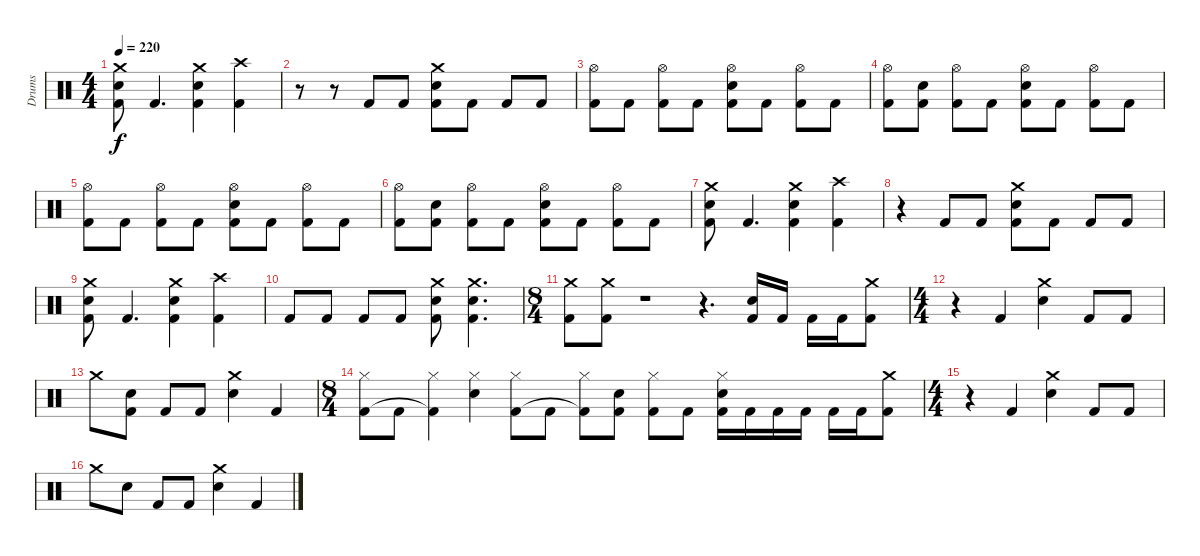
\track ("Drums" "Drums") {instrument percussion}
\staff {score}
\articulation defaults
\ts (4 4)
\tempo 220
\clef neutral
\ks c
("Crash medium (hit)" "Snare (hit) 2" "Kick (hit) 2").8{dy f} "Kick (hit) 2".4{d} ("Crash medium (hit)" "Snare (hit) 2" "Kick (hit) 2").4 ("Crash high (hit)" "Kick (hit) 2").4 |
r.8 r.8 "Kick (hit) 2".8 "Kick (hit) 2".8 ("Crash medium (hit)" "Snare (hit) 2" "Kick (hit) 2").8 "Kick (hit) 2".8 "Kick (hit) 2".8 "Kick (hit) 2".8 |
("Hi-Hat (open)" "Kick (hit) 2").8 "Kick (hit) 2".8 ("Hi-Hat (open)" "Kick (hit) 2").8 "Kick (hit) 2".8 ("Hi-Hat (open)" "Snare (hit) 2" "Kick (hit) 2").8 "Kick (hit) 2".8 ("Hi-Hat (open)" "Kick (hit) 2").8 "Kick (hit) 2".8 |
("Hi-Hat (open)" "Kick (hit) 2").8 ("Snare (hit) 2" "Kick (hit) 2").8 ("Hi-Hat (open)" "Kick (hit) 2").8 "Kick (hit) 2".8 ("Hi-Hat (open)" "Snare (hit) 2" "Kick (hit) 2").8 "Kick (hit) 2".8 ("Hi-Hat (open)" "Kick (hit) 2").8 "Kick (hit) 2".8 |
("Hi-Hat (open)" "Kick (hit) 2").8 "Kick (hit) 2".8 ("Hi-Hat (open)" "Kick (hit) 2").8 "Kick (hit) 2".8 ("Hi-Hat (open)" "Snare (hit) 2" "Kick (hit) 2").8 "Kick (hit) 2".8 ("Hi-Hat (open)" "Kick (hit) 2").8 "Kick (hit) 2".8 |
("Hi-Hat (open)" "Kick (hit) 2").8 ("Snare (hit) 2" "Kick (hit) 2").8 ("Hi-Hat (open)" "Kick (hit) 2").8 "Kick (hit) 2".8 ("Hi-Hat (open)" "Snare (hit) 2" "Kick (hit) 2").8 "Kick (hit) 2".8 ("Hi-Hat (open)" "Kick (hit) 2").8 "Kick (hit) 2".8 |
("Crash medium (hit)" "Snare (hit) 2" "Kick (hit) 2").8 "Kick (hit) 2".4{d} ("Crash medium (hit)" "Snare (hit) 2" "Kick (hit) 2").4 ("Crash high (hit)" "Kick (hit) 2").4 |
r.4 "Kick (hit) 2".8 "Kick (hit) 2".8 ("Crash medium (hit)" "Snare (hit) 2" "Kick (hit) 2").8 "Kick (hit) 2".8 "Kick (hit) 2".8 "Kick (hit) 2".8 |
("Crash medium (hit)" "Snare (hit) 2" "Kick (hit) 2").8 "Kick (hit) 2".4{d} ("Crash medium (hit)" "Snare (hit) 2" "Kick (hit) 2").4 ("Crash high (hit)" "Kick (hit) 2").4 |
"Kick (hit) 2".8 "Kick (hit) 2".8 "Kick (hit) 2".8 "Kick (hit) 2".8 ("Crash medium (hit)" "Snare (hit) 2" "Kick (hit) 2").8 ("Crash medium (hit)" "Snare (hit) 2" "Kick (hit) 2").4{d} |
\ts (8 4)
("Crash medium (hit)" "Kick (hit) 2").8 ("Crash medium (hit)" "Kick (hit) 2").8 r.1 r.4{d} ("Snare (hit) 2" "Kick (hit) 2").16 "Kick (hit) 2".16 "Kick (hit) 2".16 "Kick (hit) 2".16 ("Crash medium (hit)" "Kick (hit) 2").8 |
\ts (4 4)
r.4 "Kick (hit) 2".4 ("Crash medium (hit)" "Snare (hit) 2").4 "Kick (hit) 2".8 "Kick (hit) 2".8 |
"Crash medium (hit)".8 ("Snare (hit) 2" "Kick (hit) 2").8 "Kick (hit) 2".8 "Kick (hit) 2".8 ("Crash medium (hit)" "Snare (hit) 2").4 "Kick (hit) 2".4 |
\ts (8 4)
("Hi-Hat (closed)" "Kick (hit) 2").8 "Kick (hit) 2".8 ("Hi-Hat (closed)" "Kick (hit) 2"{t}).4 ("Hi-Hat (closed)" "Snare (hit) 2").4 ("Hi-Hat (closed)" "Kick (hit) 2").8 "Kick (hit) 2".8 ("Hi-Hat (closed)" "Kick (hit) 2"{t}).8 ("Snare (hit) 2" "Kick (hit) 2").8 ("Hi-Hat (closed)" "Kick (hit) 2").8 "Kick (hit) 2".8 ("Hi-Hat (closed)" "Snare (hit) 2" "Kick (hit) 2").16 "Kick (hit) 2".16 "Kick (hit) 2".16 "Kick (hit) 2".16 "Kick (hit) 2".16 "Kick (hit) 2".16 ("Crash medium (hit)" "Kick (hit) 2").8 |
\ts (4 4)
r.4 "Kick (hit) 2".4 ("Crash medium (hit)" "Snare (hit) 2").4 "Kick (hit) 2".8 "Kick (hit) 2".8 |
"Crash medium (hit)".8 "Snare (hit) 2".8 "Kick (hit) 2".8 "Kick (hit) 2".8 ("Crash medium (hit)" "Snare (hit) 2").4 "Kick (hit) 2".4
